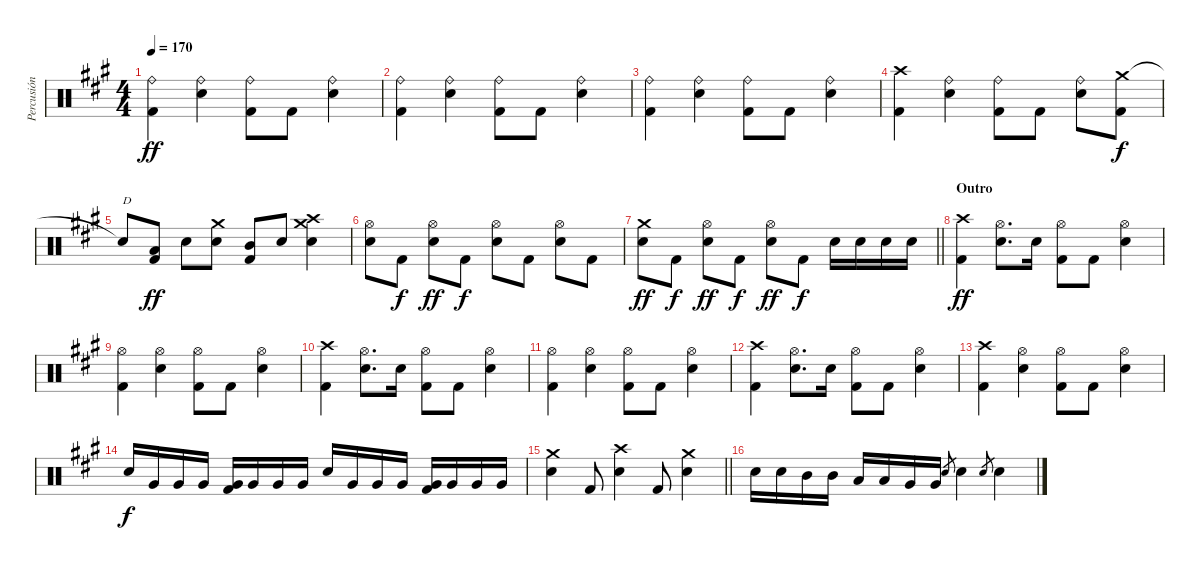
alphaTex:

\track ("Percusión" "Percusión") {instrument percussion}
\staff {score}
\articulation defaults
\ts (4 4)
\tempo 170
\clef neutral
\ks a
("Ride (bell)" "Kick (hit) 2").4{dy ff} ("Ride (bell)" "Electric Snare (hit)").4 ("Ride (bell)" "Kick (hit) 2").8 "Kick (hit) 2".8 ("Ride (bell)" "Electric Snare (hit)").4 |
("Ride (bell)" "Kick (hit) 2").4 ("Ride (bell)" "Electric Snare (hit)").4 ("Ride (bell)" "Kick (hit) 2").8 "Kick (hit) 2".8 ("Ride (bell)" "Electric Snare (hit)").4 |
("Ride (bell)" "Kick (hit) 2").4 ("Ride (bell)" "Electric Snare (hit)").4 ("Ride (bell)" "Kick (hit) 2").8 "Kick (hit) 2".8 ("Ride (bell)" "Electric Snare (hit)").4 |
("Crash high (hit)" "Kick (hit) 2").4 ("Ride (bell)" "Electric Snare (hit)").4 ("Ride (bell)" "Kick (hit) 2").8 "Kick (hit) 2".8 ("Ride (bell)" "Electric Snare (hit)").8 ("Crash medium (hit)" "Kick (hit) 2").8{dy f} |
"Snare (hit)"{t}.8{txt "D"} ("Low Tom (hit)" "Kick (hit) 2").8{dy ff} "Electric Snare (hit)".8 ("Crash medium (hit)" "Electric Snare (hit)").8 ("Mid Tom (hit)" "Kick (hit) 2").8 "Electric Snare (hit)".8 ("Crash medium (hit)" "Crash high (hit)" "Electric Snare (hit)").4 |
("Hi-Hat (open)" "Electric Snare (hit)").8 "Kick (hit) 2".8{dy f} ("Hi-Hat (open)" "Electric Snare (hit)").8{dy ff} "Kick (hit) 2".8{dy f} ("Hi-Hat (open)" "Electric Snare (hit)").8 "Kick (hit) 2".8 ("Hi-Hat (open)" "Electric Snare (hit)").8 "Kick (hit) 2".8 |
\barLineRight lightlight
("Crash medium (hit)" "Electric Snare (hit)").8{dy ff} "Kick (hit) 2".8{dy f} ("Hi-Hat (open)" "Electric Snare (hit)").8{dy ff} "Kick (hit) 2".8{dy f} ("Hi-Hat (open)" "Electric Snare (hit)").8{dy ff} "Kick (hit) 2".8{dy f} "Electric Snare (hit)".16 "Electric Snare (hit)".16 "Electric Snare (hit)".16 "Electric Snare (hit)".16 |
\section ("" "Outro")
("Crash high (hit)" "Kick (hit) 2").4{dy ff} ("Hi-Hat (open)" "Electric Snare (hit)").8{d} "Electric Snare (hit)".16 ("Hi-Hat (open)" "Kick (hit) 2").8 "Kick (hit) 2".8 ("Hi-Hat (open)" "Electric Snare (hit)").4 |
("Hi-Hat (open)" "Kick (hit) 2").4 ("Hi-Hat (open)" "Electric Snare (hit)").4 ("Hi-Hat (open)" "Kick (hit) 2").8 "Kick (hit) 2".8 ("Hi-Hat (open)" "Electric Snare (hit)").4 |
("Crash high (hit)" "Kick (hit) 2").4 ("Hi-Hat (open)" "Electric Snare (hit)").8{d} "Electric Snare (hit)".16 ("Hi-Hat (open)" "Kick (hit) 2").8 "Kick (hit) 2".8 ("Hi-Hat (open)" "Electric Snare (hit)").4 |
("Hi-Hat (open)" "Kick (hit) 2").4 ("Hi-Hat (open)" "Electric Snare (hit)").4 ("Hi-Hat (open)" "Kick (hit) 2").8 "Kick (hit) 2".8 ("Hi-Hat (open)" "Electric Snare (hit)").4 |
("Crash high (hit)" "Kick (hit) 2").4 ("Hi-Hat (open)" "Electric Snare (hit)").8{d} "Electric Snare (hit)".16 ("Hi-Hat (open)" "Kick (hit) 2").8 "Kick (hit) 2".8 ("Hi-Hat (open)" "Electric Snare (hit)").4 |
("Crash high (hit)" "Kick (hit) 2").4 ("Hi-Hat (open)" "Electric Snare (hit)").4 ("Hi-Hat (open)" "Kick (hit) 2").8 "Kick (hit) 2".8 ("Hi-Hat (open)" "Electric Snare (hit)").4 |
"Electric Snare (hit)".16{dy f} "Very Low Tom (hit)".16 "Very Low Tom (hit)".16 "Very Low Tom (hit)".16 ("Very Low Tom (hit)" "Kick (hit) 2").16 "Very Low Tom (hit)".16 "Very Low Tom (hit)".16 "Very Low Tom (hit)".16 "Electric Snare (hit)".16 "Very Low Tom (hit)".16 "Very Low Tom (hit)".16 "Very Low Tom (hit)".16 ("Very Low Tom (hit)" "Kick (hit) 2").16 "Very Low Tom (hit)".16 "Very Low Tom (hit)".16 "Very Low Tom (hit)".16 |
\barLineRight lightlight
("Crash medium (hit)" "Electric Snare (hit)").4 "Kick (hit) 2".8 ("Crash high (hit)" "Electric Snare (hit)").4 "Kick (hit) 2".8 ("Crash medium (hit)" "Electric Snare (hit)").4 |
"Electric Snare (hit)".16 "Electric Snare (hit)".16 "Mid Tom (hit)".16 "Mid Tom (hit)".16 "Low Tom (hit)".16 "Low Tom (hit)".16 "Very Low Tom (hit)".16 "Very Low Tom (hit)".16 "Electric Snare (hit)".8{gr} "Electric Snare (hit)".4 "Electric Snare (hit)".8{gr} "Electric Snare (hit)".4
